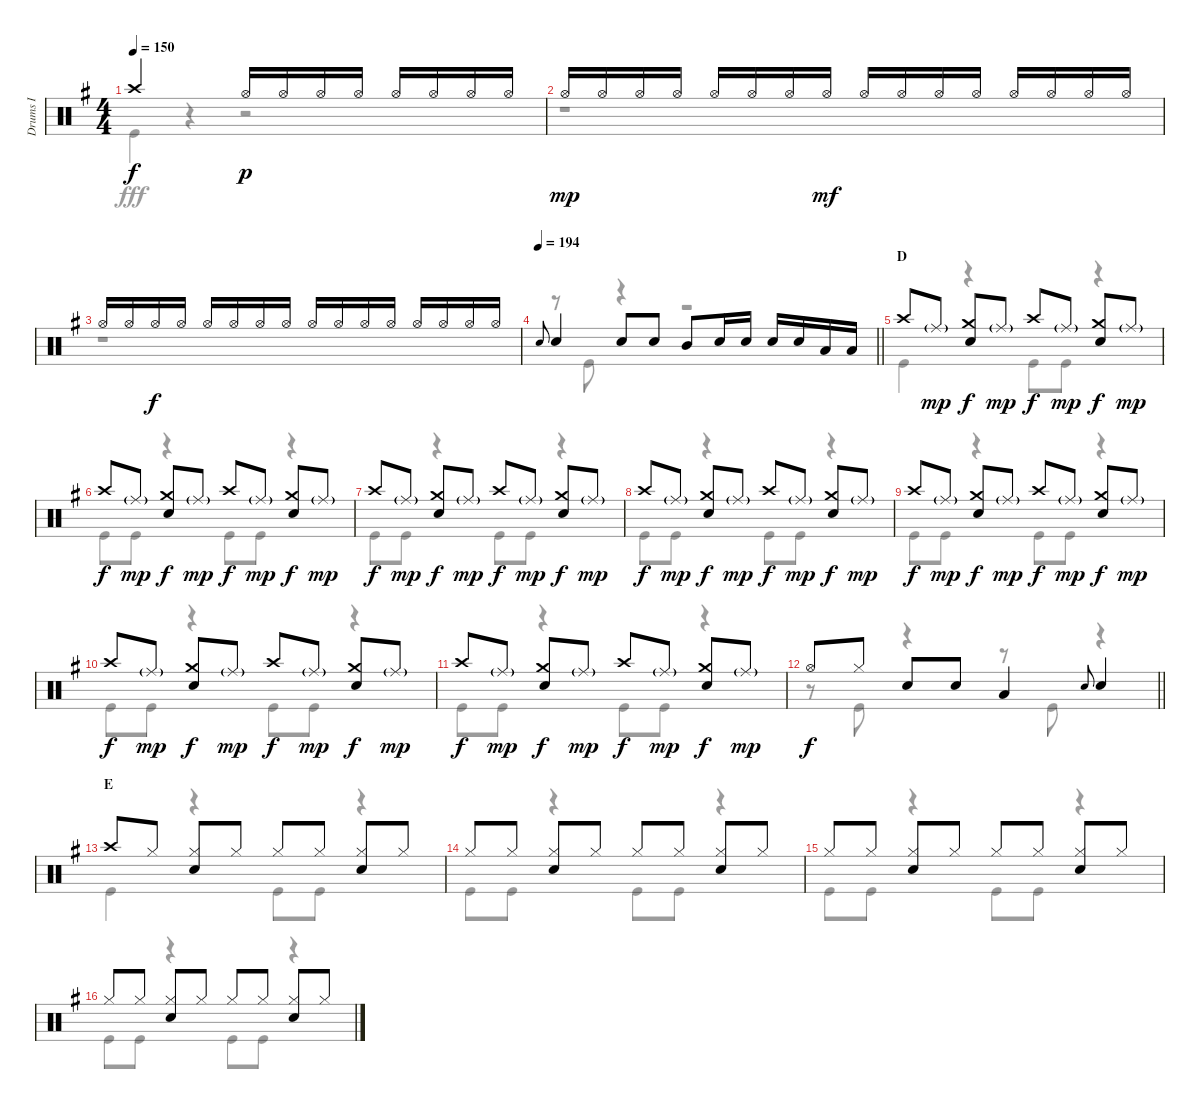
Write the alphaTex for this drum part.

\track ("Drums I" "Drums I") {instrument percussion}
\staff {score}
\articulation defaults
\voice
\ts (4 4)
\tempo 150
\clef neutral
\ks g "Crash high (hit)".2{dy f} "Hi-Hat (open)".16{dy p} "Hi-Hat (open)".16 "Hi-Hat (open)".16 "Hi-Hat (open)".16 "Hi-Hat (open)".16 "Hi-Hat (open)".16 "Hi-Hat (open)".16 "Hi-Hat (open)".16
|
"Hi-Hat (open)".16{dy mp} "Hi-Hat (open)".16 "Hi-Hat (open)".16 "Hi-Hat (open)".16 "Hi-Hat (open)".16 "Hi-Hat (open)".16 "Hi-Hat (open)".16 "Hi-Hat (open)".16{dy mf} "Hi-Hat (open)".16 "Hi-Hat (open)".16 "Hi-Hat (open)".16 "Hi-Hat (open)".16 "Hi-Hat (open)".16 "Hi-Hat (open)".16 "Hi-Hat (open)".16 "Hi-Hat (open)".16 |
"Hi-Hat (open)".16 "Hi-Hat (open)".16 "Hi-Hat (open)".16{dy f} "Hi-Hat (open)".16 "Hi-Hat (open)".16 "Hi-Hat (open)".16 "Hi-Hat (open)".16 "Hi-Hat (open)".16 "Hi-Hat (open)".16 "Hi-Hat (open)".16 "Hi-Hat (open)".16 "Hi-Hat (open)".16 "Hi-Hat (open)".16 "Hi-Hat (open)".16 "Hi-Hat (open)".16 "Hi-Hat (open)".16 |
\tempo 194
\barLineRight lightlight "Snare (hit) 2".8{gr onbeat} "Snare (hit) 2".4 "Snare (hit) 2".8 "Snare (hit) 2".8 "Mid Tom (hit)".8 "Snare (hit) 2".16 "Snare (hit) 2".16 "Snare (hit) 2".16 "Snare (hit) 2".16 "Low Tom (hit)".16 "Low Tom (hit)".16
|
\section ("" "D")
"Crash high (hit)".8 "Ride (middle)"{g}.8{dy mp} ("Crash medium (hit)" "Snare (hit) 2").8{dy f} "Ride (middle)"{g}.8{dy mp} "Crash high (hit)".8{dy f} "Ride (middle)"{g}.8{dy mp} ("Crash medium (hit)" "Snare (hit) 2").8{dy f} "Ride (middle)"{g}.8{dy mp} |
"Crash high (hit)".8{dy f} "Ride (middle)"{g}.8{dy mp} ("Crash medium (hit)" "Snare (hit) 2").8{dy f} "Ride (middle)"{g}.8{dy mp} "Crash high (hit)".8{dy f} "Ride (middle)"{g}.8{dy mp} ("Crash medium (hit)" "Snare (hit) 2").8{dy f} "Ride (middle)"{g}.8{dy mp} |
"Crash high (hit)".8{dy f} "Ride (middle)"{g}.8{dy mp} ("Crash medium (hit)" "Snare (hit) 2").8{dy f} "Ride (middle)"{g}.8{dy mp} "Crash high (hit)".8{dy f} "Ride (middle)"{g}.8{dy mp} ("Crash medium (hit)" "Snare (hit) 2").8{dy f} "Ride (middle)"{g}.8{dy mp} |
"Crash high (hit)".8{dy f} "Ride (middle)"{g}.8{dy mp} ("Crash medium (hit)" "Snare (hit) 2").8{dy f} "Ride (middle)"{g}.8{dy mp} "Crash high (hit)".8{dy f} "Ride (middle)"{g}.8{dy mp} ("Crash medium (hit)" "Snare (hit) 2").8{dy f} "Ride (middle)"{g}.8{dy mp} |
"Crash high (hit)".8{dy f} "Ride (middle)"{g}.8{dy mp} ("Crash medium (hit)" "Snare (hit) 2").8{dy f} "Ride (middle)"{g}.8{dy mp} "Crash high (hit)".8{dy f} "Ride (middle)"{g}.8{dy mp} ("Crash medium (hit)" "Snare (hit) 2").8{dy f} "Ride (middle)"{g}.8{dy mp} |
"Crash high (hit)".8{dy f} "Ride (middle)"{g}.8{dy mp} ("Crash medium (hit)" "Snare (hit) 2").8{dy f} "Ride (middle)"{g}.8{dy mp} "Crash high (hit)".8{dy f} "Ride (middle)"{g}.8{dy mp} ("Crash medium (hit)" "Snare (hit) 2").8{dy f} "Ride (middle)"{g}.8{dy mp} |
"Crash high (hit)".8{dy f} "Ride (middle)"{g}.8{dy mp} ("Crash medium (hit)" "Snare (hit) 2").8{dy f} "Ride (middle)"{g}.8{dy mp} "Crash high (hit)".8{dy f} "Ride (middle)"{g}.8{dy mp} ("Crash medium (hit)" "Snare (hit) 2").8{dy f} "Ride (middle)"{g}.8{dy mp} |
\barLineRight lightlight "Hi-Hat (open)".8{dy f} "Hi-Hat (closed)".8 "Snare (hit) 2".8 "Snare (hit) 2".8 "Low Tom (hit)".4 "Snare (hit) 2".8{gr onbeat} "Snare (hit) 2".4
|
\section ("" "E")
"Crash high (hit)".8 "Hi-Hat (closed)".8 ("Hi-Hat (closed)" "Snare (hit) 2").8 "Hi-Hat (closed)".8 "Hi-Hat (closed)".8 "Hi-Hat (closed)".8 ("Hi-Hat (closed)" "Snare (hit) 2").8 "Hi-Hat (closed)".8 |
"Hi-Hat (closed)".8 "Hi-Hat (closed)".8 ("Hi-Hat (closed)" "Snare (hit) 2").8 "Hi-Hat (closed)".8 "Hi-Hat (closed)".8 "Hi-Hat (closed)".8 ("Hi-Hat (closed)" "Snare (hit) 2").8 "Hi-Hat (closed)".8 |
"Hi-Hat (closed)".8 "Hi-Hat (closed)".8 ("Hi-Hat (closed)" "Snare (hit) 2").8 "Hi-Hat (closed)".8 "Hi-Hat (closed)".8 "Hi-Hat (closed)".8 ("Hi-Hat (closed)" "Snare (hit) 2").8 "Hi-Hat (closed)".8 |
"Hi-Hat (closed)".8 "Hi-Hat (closed)".8 ("Hi-Hat (closed)" "Snare (hit) 2").8 "Hi-Hat (closed)".8 "Hi-Hat (closed)".8 "Hi-Hat (closed)".8 ("Hi-Hat (closed)" "Snare (hit) 2").8 "Hi-Hat (closed)".8
\voice
\clef neutral
\ottava regular
\simile none
\ks g "Kick (hit)".4{dy fff}
r.4 r.2 |
r.1 |
r.1 |
\barLineRight lightlight
r.8 "Kick (hit)".8 r.4 r.2 |
"Kick (hit)".4 r.4 "Kick (hit)".8 "Kick (hit)".8 r.4 |
"Kick (hit)".8 "Kick (hit)".8 r.4 "Kick (hit)".8 "Kick (hit)".8 r.4 |
"Kick (hit)".8 "Kick (hit)".8 r.4 "Kick (hit)".8 "Kick (hit)".8 r.4 |
"Kick (hit)".8 "Kick (hit)".8 r.4 "Kick (hit)".8 "Kick (hit)".8 r.4 |
"Kick (hit)".8 "Kick (hit)".8 r.4 "Kick (hit)".8 "Kick (hit)".8 r.4 |
"Kick (hit)".8 "Kick (hit)".8 r.4 "Kick (hit)".8 "Kick (hit)".8 r.4 |
"Kick (hit)".8 "Kick (hit)".8 r.4 "Kick (hit)".8 "Kick (hit)".8 r.4 |
\barLineRight lightlight
r.8 "Kick (hit)".8 r.4 r.8 "Kick (hit)".8 r.4 |
"Kick (hit)".4 r.4 "Kick (hit)".8 "Kick (hit)".8 r.4 |
"Kick (hit)".8 "Kick (hit)".8 r.4 "Kick (hit)".8 "Kick (hit)".8 r.4 |
"Kick (hit)".8 "Kick (hit)".8 r.4 "Kick (hit)".8 "Kick (hit)".8 r.4 |
"Kick (hit)".8 "Kick (hit)".8 r.4 "Kick (hit)".8 "Kick (hit)".8 r.4
